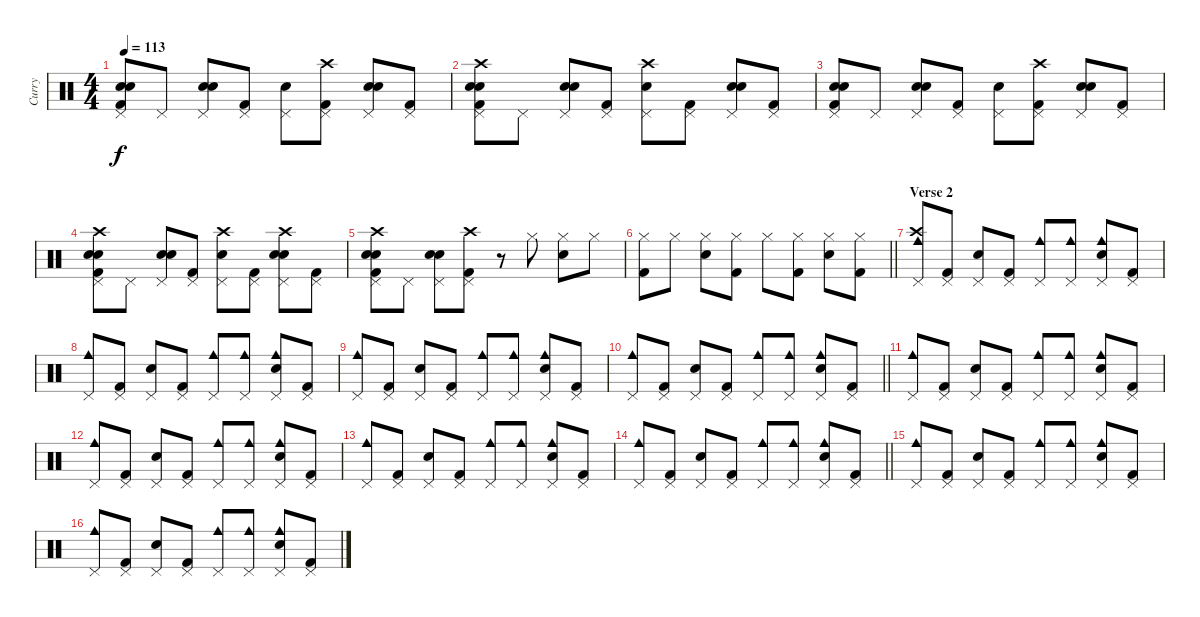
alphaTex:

\track ("Curry" "Curry") {instrument percussion}
\staff {score}
\articulation defaults
\ts (4 4)
\tempo 113
\clef neutral
\ks c
("Pedal Hi-Hat (hit)" "Kick (hit) 2" "Electric Snare (hit)" "Snare (hit) 2").8{dy f} "Pedal Hi-Hat (hit)".8 ("Pedal Hi-Hat (hit)" "Electric Snare (hit)" "Snare (hit) 2").8 ("Pedal Hi-Hat (hit)" "Kick (hit) 2").8 ("Pedal Hi-Hat (hit)" "Snare (hit) 2").8 ("Pedal Hi-Hat (hit)" "Kick (hit) 2" "Crash high (hit)").8 ("Pedal Hi-Hat (hit)" "Electric Snare (hit)" "Snare (hit) 2").8 ("Pedal Hi-Hat (hit)" "Kick (hit) 2").8 |
("Pedal Hi-Hat (hit)" "Kick (hit) 2" "Electric Snare (hit)" "Snare (hit) 2" "Crash high (hit)").8 "Pedal Hi-Hat (hit)".8 ("Pedal Hi-Hat (hit)" "Electric Snare (hit)" "Snare (hit) 2").8 ("Pedal Hi-Hat (hit)" "Kick (hit) 2").8 ("Pedal Hi-Hat (hit)" "Snare (hit) 2" "Crash high (hit)").8 ("Pedal Hi-Hat (hit)" "Kick (hit) 2").8 ("Pedal Hi-Hat (hit)" "Electric Snare (hit)" "Snare (hit) 2").8 ("Pedal Hi-Hat (hit)" "Kick (hit) 2").8 |
("Pedal Hi-Hat (hit)" "Kick (hit) 2" "Electric Snare (hit)" "Snare (hit) 2").8 "Pedal Hi-Hat (hit)".8 ("Pedal Hi-Hat (hit)" "Electric Snare (hit)" "Snare (hit) 2").8 ("Pedal Hi-Hat (hit)" "Kick (hit) 2").8 ("Pedal Hi-Hat (hit)" "Snare (hit) 2").8 ("Pedal Hi-Hat (hit)" "Kick (hit) 2" "Crash high (hit)").8 ("Pedal Hi-Hat (hit)" "Electric Snare (hit)" "Snare (hit) 2").8 ("Pedal Hi-Hat (hit)" "Kick (hit) 2").8 |
("Pedal Hi-Hat (hit)" "Kick (hit) 2" "Electric Snare (hit)" "Snare (hit) 2" "Crash high (hit)").8 "Pedal Hi-Hat (hit)".8 ("Pedal Hi-Hat (hit)" "Electric Snare (hit)" "Snare (hit) 2").8 ("Pedal Hi-Hat (hit)" "Kick (hit) 2").8 ("Pedal Hi-Hat (hit)" "Snare (hit) 2" "Crash high (hit)").8 ("Pedal Hi-Hat (hit)" "Kick (hit) 2").8 ("Pedal Hi-Hat (hit)" "Electric Snare (hit)" "Snare (hit) 2" "Crash high (hit)").8 ("Pedal Hi-Hat (hit)" "Kick (hit) 2").8 |
("Pedal Hi-Hat (hit)" "Kick (hit) 2" "Electric Snare (hit)" "Snare (hit) 2" "Crash high (hit)").8 "Pedal Hi-Hat (hit)".8 ("Pedal Hi-Hat (hit)" "Electric Snare (hit)" "Snare (hit) 2").8 ("Pedal Hi-Hat (hit)" "Kick (hit) 2" "Crash high (hit)").8 r.8 "Hi-Hat (closed)".8 ("Hi-Hat (closed)" "Snare (hit) 2").8 "Hi-Hat (closed)".8 |
\barLineRight lightlight
("Hi-Hat (closed)" "Kick (hit) 2").8 "Hi-Hat (closed)".8 ("Hi-Hat (closed)" "Snare (hit) 2").8 ("Hi-Hat (closed)" "Kick (hit) 2").8 "Hi-Hat (closed)".8 ("Hi-Hat (closed)" "Kick (hit) 2").8 ("Hi-Hat (closed)" "Snare (hit) 2").8 ("Hi-Hat (closed)" "Kick (hit) 2").8 |
\section ("" "Verse 2")
("Pedal Hi-Hat (hit)" "Cowbell medium (hit)" "Crash high (hit)").8 ("Pedal Hi-Hat (hit)" "Kick (hit) 2").8 ("Pedal Hi-Hat (hit)" "Electric Snare (hit)").8 ("Pedal Hi-Hat (hit)" "Kick (hit) 2").8 ("Pedal Hi-Hat (hit)" "Cowbell medium (hit)").8 ("Pedal Hi-Hat (hit)" "Cowbell medium (hit)").8 ("Pedal Hi-Hat (hit)" "Cowbell medium (hit)" "Electric Snare (hit)").8 ("Pedal Hi-Hat (hit)" "Kick (hit) 2").8 |
("Pedal Hi-Hat (hit)" "Cowbell medium (hit)").8 ("Pedal Hi-Hat (hit)" "Kick (hit) 2").8 ("Pedal Hi-Hat (hit)" "Electric Snare (hit)").8 ("Pedal Hi-Hat (hit)" "Kick (hit) 2").8 ("Pedal Hi-Hat (hit)" "Cowbell medium (hit)").8 ("Pedal Hi-Hat (hit)" "Cowbell medium (hit)").8 ("Pedal Hi-Hat (hit)" "Cowbell medium (hit)" "Electric Snare (hit)").8 ("Pedal Hi-Hat (hit)" "Kick (hit) 2").8 |
("Pedal Hi-Hat (hit)" "Cowbell medium (hit)").8 ("Pedal Hi-Hat (hit)" "Kick (hit) 2").8 ("Pedal Hi-Hat (hit)" "Electric Snare (hit)").8 ("Pedal Hi-Hat (hit)" "Kick (hit) 2").8 ("Pedal Hi-Hat (hit)" "Cowbell medium (hit)").8 ("Pedal Hi-Hat (hit)" "Cowbell medium (hit)").8 ("Pedal Hi-Hat (hit)" "Cowbell medium (hit)" "Electric Snare (hit)").8 ("Pedal Hi-Hat (hit)" "Kick (hit) 2").8 |
\barLineRight lightlight
("Pedal Hi-Hat (hit)" "Cowbell medium (hit)").8 ("Pedal Hi-Hat (hit)" "Kick (hit) 2").8 ("Pedal Hi-Hat (hit)" "Electric Snare (hit)").8 ("Pedal Hi-Hat (hit)" "Kick (hit) 2").8 ("Pedal Hi-Hat (hit)" "Cowbell medium (hit)").8 ("Pedal Hi-Hat (hit)" "Cowbell medium (hit)").8 ("Pedal Hi-Hat (hit)" "Cowbell medium (hit)" "Electric Snare (hit)").8 ("Pedal Hi-Hat (hit)" "Kick (hit) 2").8 |
("Pedal Hi-Hat (hit)" "Cowbell medium (hit)").8 ("Pedal Hi-Hat (hit)" "Kick (hit) 2").8 ("Pedal Hi-Hat (hit)" "Electric Snare (hit)").8 ("Pedal Hi-Hat (hit)" "Kick (hit) 2").8 ("Pedal Hi-Hat (hit)" "Cowbell medium (hit)").8 ("Pedal Hi-Hat (hit)" "Cowbell medium (hit)").8 ("Pedal Hi-Hat (hit)" "Cowbell medium (hit)" "Electric Snare (hit)").8 ("Pedal Hi-Hat (hit)" "Kick (hit) 2").8 |
("Pedal Hi-Hat (hit)" "Cowbell medium (hit)").8 ("Pedal Hi-Hat (hit)" "Kick (hit) 2").8 ("Pedal Hi-Hat (hit)" "Electric Snare (hit)").8 ("Pedal Hi-Hat (hit)" "Kick (hit) 2").8 ("Pedal Hi-Hat (hit)" "Cowbell medium (hit)").8 ("Pedal Hi-Hat (hit)" "Cowbell medium (hit)").8 ("Pedal Hi-Hat (hit)" "Cowbell medium (hit)" "Electric Snare (hit)").8 ("Pedal Hi-Hat (hit)" "Kick (hit) 2").8 |
("Pedal Hi-Hat (hit)" "Cowbell medium (hit)").8 ("Pedal Hi-Hat (hit)" "Kick (hit) 2").8 ("Pedal Hi-Hat (hit)" "Electric Snare (hit)").8 ("Pedal Hi-Hat (hit)" "Kick (hit) 2").8 ("Pedal Hi-Hat (hit)" "Cowbell medium (hit)").8 ("Pedal Hi-Hat (hit)" "Cowbell medium (hit)").8 ("Pedal Hi-Hat (hit)" "Cowbell medium (hit)" "Electric Snare (hit)").8 ("Pedal Hi-Hat (hit)" "Kick (hit) 2").8 |
\barLineRight lightlight
("Pedal Hi-Hat (hit)" "Cowbell medium (hit)").8 ("Pedal Hi-Hat (hit)" "Kick (hit) 2").8 ("Pedal Hi-Hat (hit)" "Electric Snare (hit)").8 ("Pedal Hi-Hat (hit)" "Kick (hit) 2").8 ("Pedal Hi-Hat (hit)" "Cowbell medium (hit)").8 ("Pedal Hi-Hat (hit)" "Cowbell medium (hit)").8 ("Pedal Hi-Hat (hit)" "Cowbell medium (hit)" "Electric Snare (hit)").8 ("Pedal Hi-Hat (hit)" "Kick (hit) 2").8 |
("Pedal Hi-Hat (hit)" "Cowbell medium (hit)").8 ("Pedal Hi-Hat (hit)" "Kick (hit) 2").8 ("Pedal Hi-Hat (hit)" "Electric Snare (hit)").8 ("Pedal Hi-Hat (hit)" "Kick (hit) 2").8 ("Pedal Hi-Hat (hit)" "Cowbell medium (hit)").8 ("Pedal Hi-Hat (hit)" "Cowbell medium (hit)").8 ("Pedal Hi-Hat (hit)" "Cowbell medium (hit)" "Electric Snare (hit)").8 ("Pedal Hi-Hat (hit)" "Kick (hit) 2").8 |
("Pedal Hi-Hat (hit)" "Cowbell medium (hit)").8 ("Pedal Hi-Hat (hit)" "Kick (hit) 2").8 ("Pedal Hi-Hat (hit)" "Electric Snare (hit)").8 ("Pedal Hi-Hat (hit)" "Kick (hit) 2").8 ("Pedal Hi-Hat (hit)" "Cowbell medium (hit)").8 ("Pedal Hi-Hat (hit)" "Cowbell medium (hit)").8 ("Pedal Hi-Hat (hit)" "Cowbell medium (hit)" "Electric Snare (hit)").8 ("Pedal Hi-Hat (hit)" "Kick (hit) 2").8
